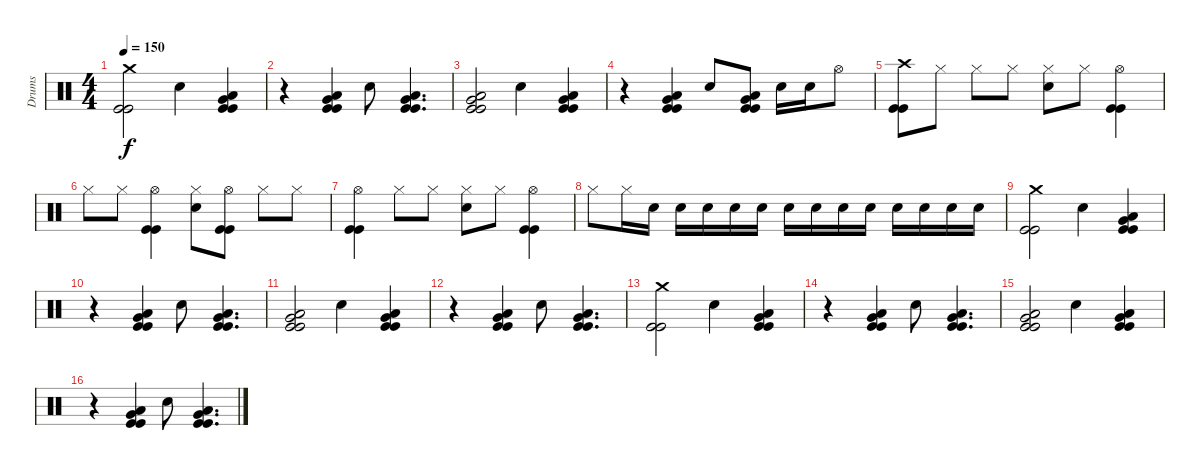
\track ("Drums" "Drums") {instrument percussion}
\staff {score}
\articulation defaults
\ts (4 4)
\tempo 150
\clef neutral
\ks c
("Crash medium (hit)" "Kick (hit)" "Kick (hit)").2{dy f} "Electric Snare (hit)".4 ("Low Tom (hit)" "Very Low Tom (hit)" "Kick (hit)" "Kick (hit)").4 |
r.4 ("Low Tom (hit)" "Very Low Tom (hit)" "Kick (hit)" "Kick (hit)").4 "Electric Snare (hit)".8 ("Very Low Tom (hit)" "Low Floor Tom (hit)" "Kick (hit)" "Kick (hit)").4{d} |
("Very Low Tom (hit)" "Low Floor Tom (hit)" "Kick (hit)" "Kick (hit)").2 "Electric Snare (hit)".4 ("Low Tom (hit)" "Very Low Tom (hit)" "Kick (hit)" "Kick (hit)").4 |
r.4 ("Low Tom (hit)" "Very Low Tom (hit)" "Kick (hit)" "Kick (hit)").4 "Electric Snare (hit)".8 ("Very Low Tom (hit)" "Low Floor Tom (hit)" "Kick (hit)" "Kick (hit)").8 "Electric Snare (hit)".16 "Electric Snare (hit)".16 "Hi-Hat (open)".8 |
("Crash high (hit)" "Kick (hit)" "Kick (hit)").8 "Hi-Hat (closed)".8 "Hi-Hat (closed)".8 "Hi-Hat (closed)".8 ("Hi-Hat (closed)" "Electric Snare (hit)").8 "Hi-Hat (closed)".8 ("Hi-Hat (open)" "Kick (hit)" "Kick (hit)").4 |
"Hi-Hat (closed)".8 "Hi-Hat (closed)".8 ("Hi-Hat (open)" "Kick (hit)" "Kick (hit)").4 ("Hi-Hat (closed)" "Electric Snare (hit)").8 ("Hi-Hat (open)" "Kick (hit)" "Kick (hit)").8 "Hi-Hat (closed)".8 "Hi-Hat (closed)".8 |
("Hi-Hat (open)" "Kick (hit)" "Kick (hit)").4 "Hi-Hat (closed)".8 "Hi-Hat (closed)".8 ("Hi-Hat (closed)" "Electric Snare (hit)").8 "Hi-Hat (closed)".8 ("Hi-Hat (open)" "Kick (hit)" "Kick (hit)").4 |
"Hi-Hat (closed)".8 "Hi-Hat (closed)".16 "Electric Snare (hit)".16{volume 5} "Electric Snare (hit)".16{volume 16} "Electric Snare (hit)".16 "Electric Snare (hit)".16 "Electric Snare (hit)".16 "Electric Snare (hit)".16 "Electric Snare (hit)".16 "Electric Snare (hit)".16 "Electric Snare (hit)".16 "Electric Snare (hit)".16 "Electric Snare (hit)".16 "Electric Snare (hit)".16 "Electric Snare (hit)".16 |
("Crash medium (hit)" "Kick (hit)" "Kick (hit)").2 "Electric Snare (hit)".4 ("Low Tom (hit)" "Very Low Tom (hit)" "Kick (hit)" "Kick (hit)").4 |
r.4 ("Low Tom (hit)" "Very Low Tom (hit)" "Kick (hit)" "Kick (hit)").4 "Electric Snare (hit)".8 ("Very Low Tom (hit)" "Low Floor Tom (hit)" "Kick (hit)" "Kick (hit)").4{d} |
("Very Low Tom (hit)" "Low Floor Tom (hit)" "Kick (hit)" "Kick (hit)").2 "Electric Snare (hit)".4 ("Low Tom (hit)" "Very Low Tom (hit)" "Kick (hit)" "Kick (hit)").4 |
r.4 ("Low Tom (hit)" "Very Low Tom (hit)" "Kick (hit)" "Kick (hit)").4 "Electric Snare (hit)".8 ("Very Low Tom (hit)" "Low Floor Tom (hit)" "Kick (hit)" "Kick (hit)").4{d} |
("Crash medium (hit)" "Kick (hit)" "Kick (hit)").2{volume 0} "Electric Snare (hit)".4 ("Low Tom (hit)" "Very Low Tom (hit)" "Kick (hit)" "Kick (hit)").4 |
r.4 ("Low Tom (hit)" "Very Low Tom (hit)" "Kick (hit)" "Kick (hit)").4 "Electric Snare (hit)".8 ("Very Low Tom (hit)" "Low Floor Tom (hit)" "Kick (hit)" "Kick (hit)").4{d} |
("Very Low Tom (hit)" "Low Floor Tom (hit)" "Kick (hit)" "Kick (hit)").2 "Electric Snare (hit)".4 ("Low Tom (hit)" "Very Low Tom (hit)" "Kick (hit)" "Kick (hit)").4 |
r.4 ("Low Tom (hit)" "Very Low Tom (hit)" "Kick (hit)" "Kick (hit)").4 "Electric Snare (hit)".8 ("Very Low Tom (hit)" "Low Floor Tom (hit)" "Kick (hit)" "Kick (hit)").4{d}
